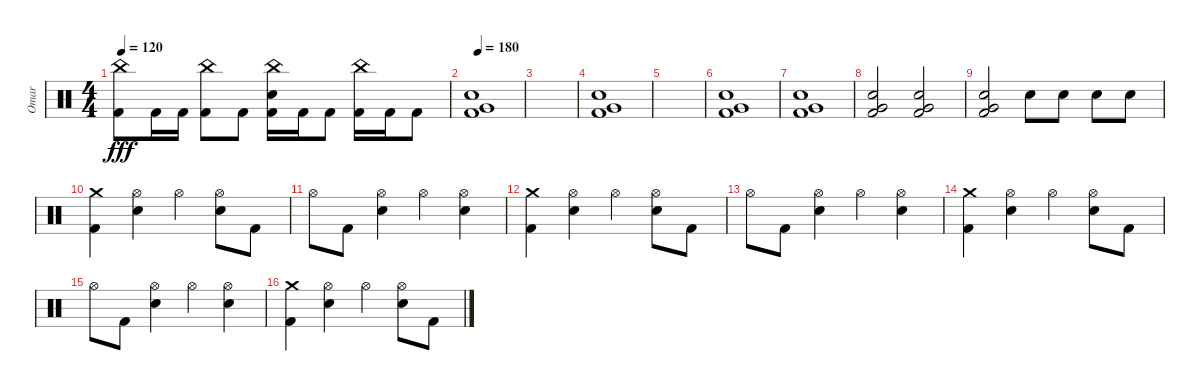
\track ("Omar" "Omar") {instrument percussion}
\staff {score}
\articulation defaults
\ts (4 4)
\tempo 120
\clef neutral
\ks c
("China (hit)" "Kick (hit) 2").8{dy fff} "Kick (hit) 2".16 "Kick (hit) 2".16 ("China (hit)" "Kick (hit) 2").8 "Kick (hit) 2".8 ("China (hit)" "Electric Snare (hit)" "Kick (hit) 2").16 "Kick (hit) 2".16 "Kick (hit) 2".8 ("China (hit)" "Kick (hit) 2").16 "Kick (hit) 2".16 "Kick (hit) 2".8 |
\tempo 180
("Electric Snare (hit)" "Very Low Tom (hit)" "Kick (hit) 2").1 |
|
("Electric Snare (hit)" "Very Low Tom (hit)" "Kick (hit) 2").1 |
|
("Electric Snare (hit)" "Very Low Tom (hit)" "Kick (hit) 2").1 |
("Electric Snare (hit)" "Very Low Tom (hit)" "Kick (hit) 2").1 |
("Electric Snare (hit)" "Very Low Tom (hit)" "Kick (hit) 2").2 ("Electric Snare (hit)" "Very Low Tom (hit)" "Kick (hit) 2").2 |
("Electric Snare (hit)" "Very Low Tom (hit)" "Kick (hit) 2").2 "Electric Snare (hit)".8 "Electric Snare (hit)".8 "Electric Snare (hit)".8 "Electric Snare (hit)".8 |
("Crash medium (hit)" "Kick (hit) 2").4 ("Hi-Hat (open)" "Electric Snare (hit)").4 "Hi-Hat (open)".4 ("Hi-Hat (open)" "Electric Snare (hit)").8 "Kick (hit) 2".8 |
"Hi-Hat (open)".8 "Kick (hit) 2".8 ("Hi-Hat (open)" "Electric Snare (hit)").4 "Hi-Hat (open)".4 ("Hi-Hat (open)" "Electric Snare (hit)").4 |
("Crash medium (hit)" "Kick (hit) 2").4 ("Hi-Hat (open)" "Electric Snare (hit)").4 "Hi-Hat (open)".4 ("Hi-Hat (open)" "Electric Snare (hit)").8 "Kick (hit) 2".8 |
"Hi-Hat (open)".8 "Kick (hit) 2".8 ("Hi-Hat (open)" "Electric Snare (hit)").4 "Hi-Hat (open)".4 ("Hi-Hat (open)" "Electric Snare (hit)").4 |
("Crash medium (hit)" "Kick (hit) 2").4 ("Hi-Hat (open)" "Electric Snare (hit)").4 "Hi-Hat (open)".4 ("Hi-Hat (open)" "Electric Snare (hit)").8 "Kick (hit) 2".8 |
"Hi-Hat (open)".8 "Kick (hit) 2".8 ("Hi-Hat (open)" "Electric Snare (hit)").4 "Hi-Hat (open)".4 ("Hi-Hat (open)" "Electric Snare (hit)").4 |
("Crash medium (hit)" "Kick (hit) 2").4 ("Hi-Hat (open)" "Electric Snare (hit)").4 "Hi-Hat (open)".4 ("Hi-Hat (open)" "Electric Snare (hit)").8 "Kick (hit) 2".8
